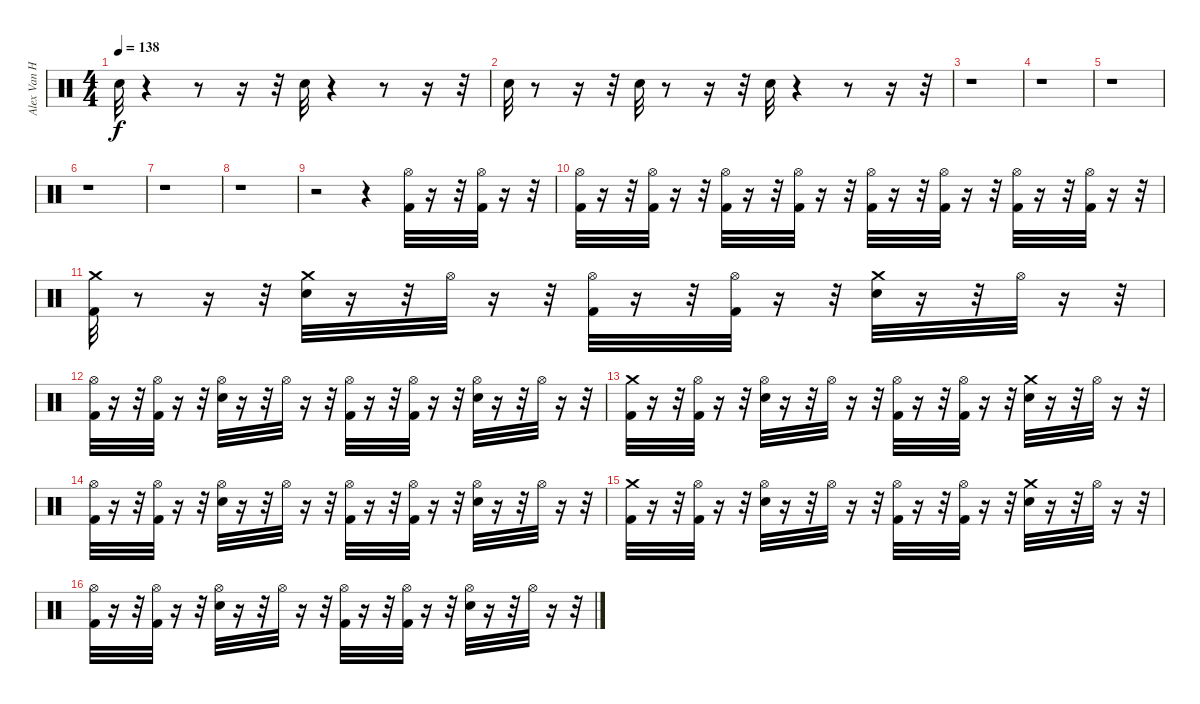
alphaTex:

\track ("Alex Van Halen (Drums)" "Alex Van H") {instrument percussion}
\staff {score}
\articulation defaults
\ts (4 4)
\tempo 138
\clef neutral
\ks c "Hand Clap (hit)".32{dy f}
r.4 r.8 r.16 r.32 "Hand Clap (hit)".32 r.4 r.8 r.16 r.32 |
"Hand Clap (hit)".32 r.8 r.16 r.32 "Hand Clap (hit)".32 r.8 r.16 r.32 "Hand Clap (hit)".32 r.4 r.8 r.16 r.32 |
r.1 |
r.1 |
r.1 |
r.1 |
r.1 |
r.1 |
r.2 r.4 ("Hi-Hat (open)" "Kick (hit) 2").32 r.16 r.32 ("Hi-Hat (open)" "Kick (hit) 2").32 r.16 r.32 |
("Hi-Hat (open)" "Kick (hit) 2").32 r.16 r.32 ("Hi-Hat (open)" "Kick (hit) 2").32 r.16 r.32 ("Hi-Hat (open)" "Kick (hit) 2").32 r.16 r.32 ("Hi-Hat (open)" "Kick (hit) 2").32 r.16 r.32 ("Hi-Hat (open)" "Kick (hit) 2").32 r.16 r.32 ("Hi-Hat (open)" "Kick (hit) 2").32 r.16 r.32 ("Hi-Hat (open)" "Kick (hit) 2").32 r.16 r.32 ("Hi-Hat (open)" "Kick (hit) 2").32 r.16 r.32 |
("Kick (hit) 2" "Crash medium (hit)").32 r.8 r.16 r.32 ("Snare (hit) 2" "Crash medium (hit)").32 r.16 r.32 "Hi-Hat (open)".32 r.16 r.32 ("Kick (hit) 2" "Hi-Hat (open)").32 r.16 r.32 ("Kick (hit) 2" "Hi-Hat (open)").32 r.16 r.32 ("Snare (hit) 2" "Crash medium (hit)").32 r.16 r.32 "Hi-Hat (open)".32 r.16 r.32 |
("Kick (hit) 2" "Hi-Hat (open)").32 r.16 r.32 ("Kick (hit) 2" "Hi-Hat (open)").32 r.16 r.32 ("Snare (hit) 2" "Hi-Hat (open)").32 r.16 r.32 "Hi-Hat (open)".32 r.16 r.32 ("Kick (hit) 2" "Hi-Hat (open)").32 r.16 r.32 ("Kick (hit) 2" "Hi-Hat (open)").32 r.16 r.32 ("Snare (hit) 2" "Hi-Hat (open)").32 r.16 r.32 "Hi-Hat (open)".32 r.16 r.32 |
("Kick (hit) 2" "Crash medium (hit)").32 r.16 r.32 ("Kick (hit) 2" "Hi-Hat (open)").32 r.16 r.32 ("Snare (hit) 2" "Hi-Hat (open)").32 r.16 r.32 "Hi-Hat (open)".32 r.16 r.32 ("Kick (hit) 2" "Hi-Hat (open)").32 r.16 r.32 ("Kick (hit) 2" "Hi-Hat (open)").32 r.16 r.32 ("Snare (hit) 2" "Crash medium (hit)").32 r.16 r.32 "Hi-Hat (open)".32 r.16 r.32 |
("Kick (hit) 2" "Hi-Hat (open)").32 r.16 r.32 ("Kick (hit) 2" "Hi-Hat (open)").32 r.16 r.32 ("Snare (hit) 2" "Hi-Hat (open)").32 r.16 r.32 "Hi-Hat (open)".32 r.16 r.32 ("Kick (hit) 2" "Hi-Hat (open)").32 r.16 r.32 ("Kick (hit) 2" "Hi-Hat (open)").32 r.16 r.32 ("Snare (hit) 2" "Hi-Hat (open)").32 r.16 r.32 "Hi-Hat (open)".32 r.16 r.32 |
("Kick (hit) 2" "Crash medium (hit)").32 r.16 r.32 ("Kick (hit) 2" "Hi-Hat (open)").32 r.16 r.32 ("Snare (hit) 2" "Hi-Hat (open)").32 r.16 r.32 "Hi-Hat (open)".32 r.16 r.32 ("Kick (hit) 2" "Hi-Hat (open)").32 r.16 r.32 ("Kick (hit) 2" "Hi-Hat (open)").32 r.16 r.32 ("Snare (hit) 2" "Crash medium (hit)").32 r.16 r.32 "Hi-Hat (open)".32 r.16 r.32 |
("Kick (hit) 2" "Hi-Hat (open)").32 r.16 r.32 ("Kick (hit) 2" "Hi-Hat (open)").32 r.16 r.32 ("Snare (hit) 2" "Hi-Hat (open)").32 r.16 r.32 "Hi-Hat (open)".32 r.16 r.32 ("Kick (hit) 2" "Hi-Hat (open)").32 r.16 r.32 ("Kick (hit) 2" "Hi-Hat (open)").32 r.16 r.32 ("Snare (hit) 2" "Hi-Hat (open)").32 r.16 r.32 "Hi-Hat (open)".32 r.16 r.32
